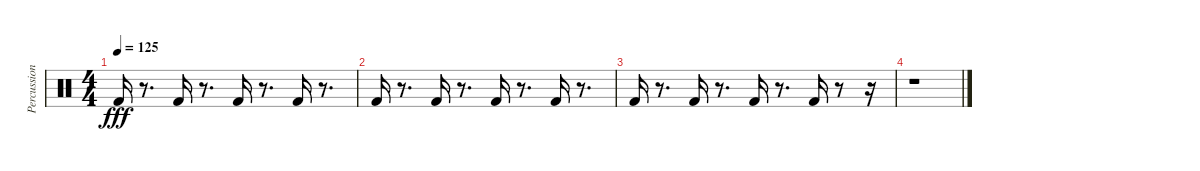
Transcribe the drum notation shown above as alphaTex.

\track ("Percussion" "Percussion") {instrument percussion}
\staff {score}
\articulation defaults
\ts (4 4)
\tempo 125
\clef neutral
\ks c "Kick (hit) 2".16{dy fff}
r.8{d} "Kick (hit) 2".16 r.8{d} "Kick (hit) 2".16 r.8{d} "Kick (hit) 2".16 r.8{d} |
"Kick (hit) 2".16 r.8{d} "Kick (hit) 2".16 r.8{d} "Kick (hit) 2".16 r.8{d} "Kick (hit) 2".16 r.8{d} |
"Kick (hit) 2".16 r.8{d} "Kick (hit) 2".16 r.8{d} "Kick (hit) 2".16 r.8{d} "Kick (hit) 2".16 r.8 r.16 |
r.1
